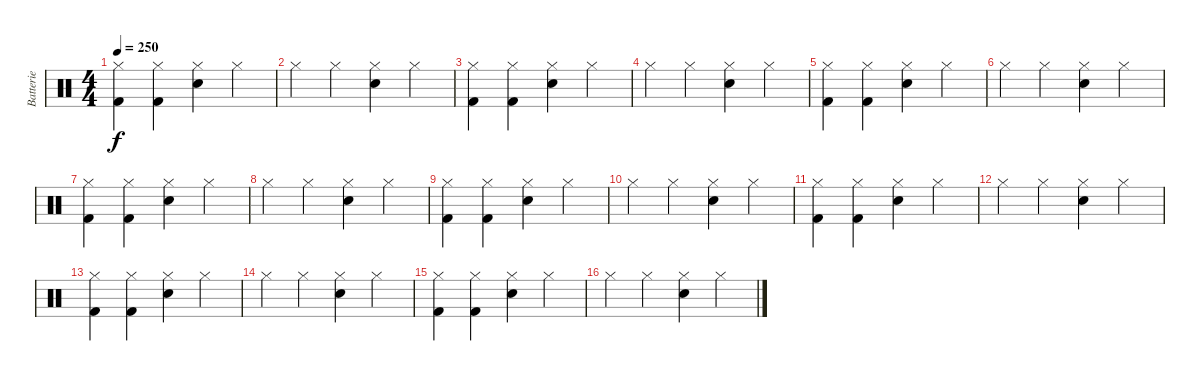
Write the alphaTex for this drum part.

\track ("Batterie" "Batterie") {instrument percussion}
\staff {score}
\articulation defaults
\ts (4 4)
\tempo 250
\clef neutral
\ks c
("Hi-Hat (closed)" "Kick (hit) 2").4{dy f} ("Hi-Hat (closed)" "Kick (hit) 2").4 ("Hi-Hat (closed)" "Electric Snare (hit)").4 "Hi-Hat (closed)".4 |
"Hi-Hat (closed)".4 "Hi-Hat (closed)".4 ("Hi-Hat (closed)" "Electric Snare (hit)").4 "Hi-Hat (closed)".4 |
("Hi-Hat (closed)" "Kick (hit) 2").4 ("Hi-Hat (closed)" "Kick (hit) 2").4 ("Hi-Hat (closed)" "Electric Snare (hit)").4 "Hi-Hat (closed)".4 |
"Hi-Hat (closed)".4 "Hi-Hat (closed)".4 ("Hi-Hat (closed)" "Electric Snare (hit)").4 "Hi-Hat (closed)".4 |
("Hi-Hat (closed)" "Kick (hit) 2").4 ("Hi-Hat (closed)" "Kick (hit) 2").4 ("Hi-Hat (closed)" "Electric Snare (hit)").4 "Hi-Hat (closed)".4 |
"Hi-Hat (closed)".4 "Hi-Hat (closed)".4 ("Hi-Hat (closed)" "Electric Snare (hit)").4 "Hi-Hat (closed)".4 |
("Hi-Hat (closed)" "Kick (hit) 2").4 ("Hi-Hat (closed)" "Kick (hit) 2").4 ("Hi-Hat (closed)" "Electric Snare (hit)").4 "Hi-Hat (closed)".4 |
"Hi-Hat (closed)".4 "Hi-Hat (closed)".4 ("Hi-Hat (closed)" "Electric Snare (hit)").4 "Hi-Hat (closed)".4 |
("Hi-Hat (closed)" "Kick (hit) 2").4 ("Hi-Hat (closed)" "Kick (hit) 2").4 ("Hi-Hat (closed)" "Electric Snare (hit)").4 "Hi-Hat (closed)".4 |
"Hi-Hat (closed)".4 "Hi-Hat (closed)".4 ("Hi-Hat (closed)" "Electric Snare (hit)").4 "Hi-Hat (closed)".4 |
("Hi-Hat (closed)" "Kick (hit) 2").4 ("Hi-Hat (closed)" "Kick (hit) 2").4 ("Hi-Hat (closed)" "Electric Snare (hit)").4 "Hi-Hat (closed)".4 |
"Hi-Hat (closed)".4 "Hi-Hat (closed)".4 ("Hi-Hat (closed)" "Electric Snare (hit)").4 "Hi-Hat (closed)".4 |
("Hi-Hat (closed)" "Kick (hit) 2").4 ("Hi-Hat (closed)" "Kick (hit) 2").4 ("Hi-Hat (closed)" "Electric Snare (hit)").4 "Hi-Hat (closed)".4 |
"Hi-Hat (closed)".4 "Hi-Hat (closed)".4 ("Hi-Hat (closed)" "Electric Snare (hit)").4 "Hi-Hat (closed)".4 |
("Hi-Hat (closed)" "Kick (hit) 2").4 ("Hi-Hat (closed)" "Kick (hit) 2").4 ("Hi-Hat (closed)" "Electric Snare (hit)").4 "Hi-Hat (closed)".4 |
"Hi-Hat (closed)".4 "Hi-Hat (closed)".4 ("Hi-Hat (closed)" "Electric Snare (hit)").4 "Hi-Hat (closed)".4
